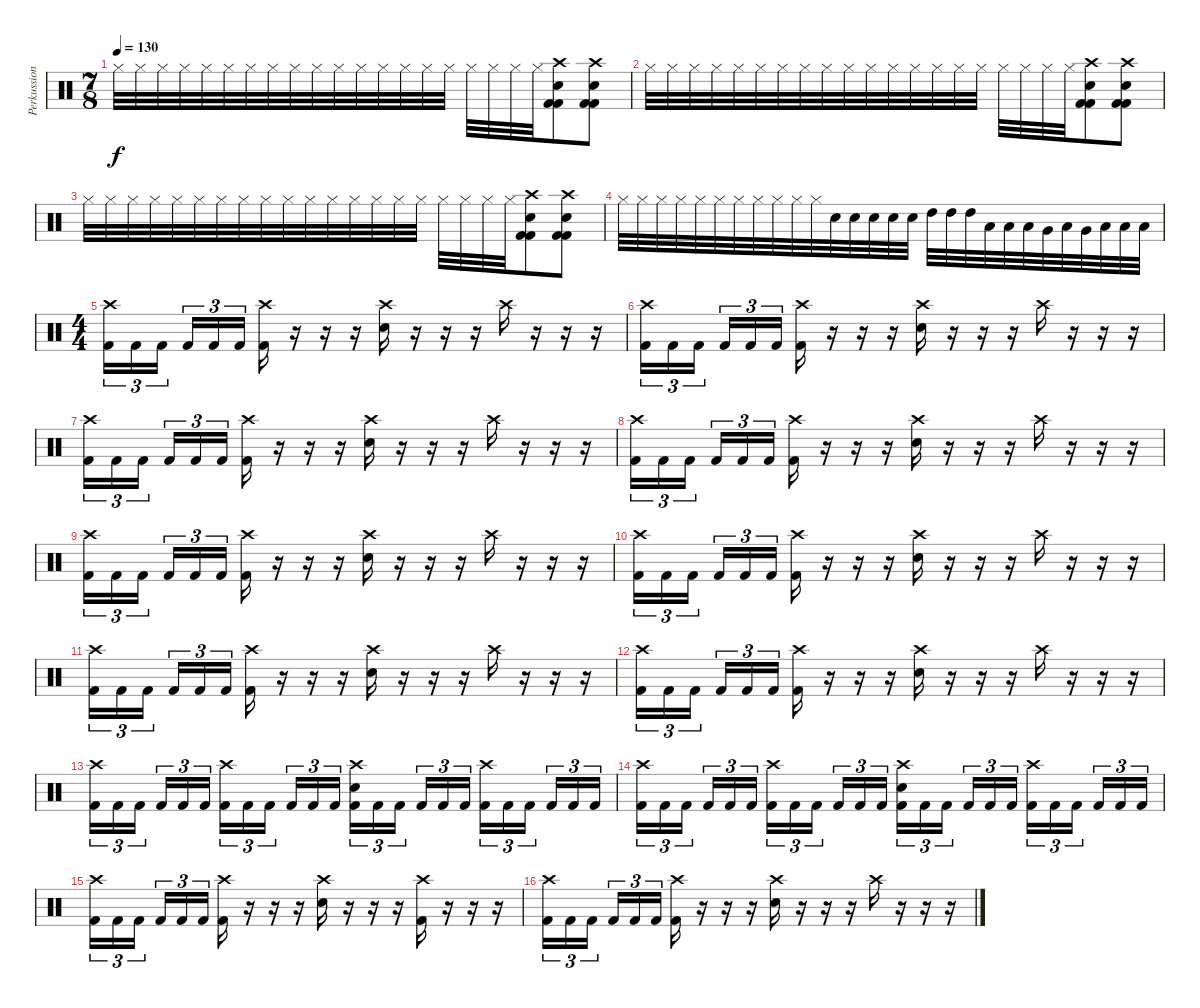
\track ("Perkussion" "Perkussion") {instrument percussion}
\staff {score}
\articulation defaults
\ts (7 8)
\tempo 130
\clef neutral
\ks c "Hi-Hat (closed)".32{dy f} "Hi-Hat (closed)".32 "Hi-Hat (closed)".32 "Hi-Hat (closed)".32 "Hi-Hat (closed)".32 "Hi-Hat (closed)".32 "Hi-Hat (closed)".32 "Hi-Hat (closed)".32 "Hi-Hat (closed)".32 "Hi-Hat (closed)".32 "Hi-Hat (closed)".32 "Hi-Hat (closed)".32 "Hi-Hat (closed)".32 "Hi-Hat (closed)".32 "Hi-Hat (closed)".32 "Hi-Hat (closed)".32 "Hi-Hat (closed)".32 "Hi-Hat (closed)".32 "Hi-Hat (closed)".32 "Hi-Hat (closed)".32
("Crash high (hit)" "Electric Snare (hit)" "Kick (hit) 2" "Kick (hit) 2").8 ("Crash high (hit)" "Electric Snare (hit)" "Kick (hit) 2" "Kick (hit) 2").8 |
"Hi-Hat (closed)".32 "Hi-Hat (closed)".32 "Hi-Hat (closed)".32 "Hi-Hat (closed)".32 "Hi-Hat (closed)".32 "Hi-Hat (closed)".32 "Hi-Hat (closed)".32 "Hi-Hat (closed)".32 "Hi-Hat (closed)".32 "Hi-Hat (closed)".32 "Hi-Hat (closed)".32 "Hi-Hat (closed)".32 "Hi-Hat (closed)".32 "Hi-Hat (closed)".32 "Hi-Hat (closed)".32 "Hi-Hat (closed)".32 "Hi-Hat (closed)".32 "Hi-Hat (closed)".32 "Hi-Hat (closed)".32 "Hi-Hat (closed)".32 ("Crash high (hit)" "Electric Snare (hit)" "Kick (hit) 2" "Kick (hit) 2").8 ("Crash high (hit)" "Electric Snare (hit)" "Kick (hit) 2" "Kick (hit) 2").8 |
"Hi-Hat (closed)".32 "Hi-Hat (closed)".32 "Hi-Hat (closed)".32 "Hi-Hat (closed)".32 "Hi-Hat (closed)".32 "Hi-Hat (closed)".32 "Hi-Hat (closed)".32 "Hi-Hat (closed)".32 "Hi-Hat (closed)".32 "Hi-Hat (closed)".32 "Hi-Hat (closed)".32 "Hi-Hat (closed)".32 "Hi-Hat (closed)".32 "Hi-Hat (closed)".32 "Hi-Hat (closed)".32 "Hi-Hat (closed)".32 "Hi-Hat (closed)".32 "Hi-Hat (closed)".32 "Hi-Hat (closed)".32 "Hi-Hat (closed)".32 ("Crash high (hit)" "Electric Snare (hit)" "Kick (hit) 2" "Kick (hit) 2").8 ("Crash high (hit)" "Electric Snare (hit)" "Kick (hit) 2" "Kick (hit) 2").8 |
"Hi-Hat (closed)".32 "Hi-Hat (closed)".32 "Hi-Hat (closed)".32 "Hi-Hat (closed)".32 "Hi-Hat (closed)".32 "Hi-Hat (closed)".32 "Hi-Hat (closed)".32 "Hi-Hat (closed)".32 "Hi-Hat (closed)".32 "Hi-Hat (closed)".32 "Hi-Hat (closed)".32 "Electric Snare (hit)".32 "Electric Snare (hit)".32 "Electric Snare (hit)".32 "Electric Snare (hit)".32 "Electric Snare (hit)".32 "High Tom (hit)".32 "High Tom (hit)".32 "High Tom (hit)".32 "Low Tom (hit)".32 "Low Tom (hit)".32 "Low Tom (hit)".32 "Very Low Tom (hit)".32 "Low Tom (hit)".32 "Very Low Tom (hit)".32 "Low Floor Tom (hit)".32 "Low Floor Tom (hit)".32 "Low Floor Tom (hit)".32 |
\ts (4 4)
("Crash high (hit)" "Kick (hit) 2").16{tu (3 2)} "Kick (hit) 2".16{tu (3 2)} "Kick (hit) 2".16{tu (3 2)} "Kick (hit) 2".16{tu (3 2)} "Kick (hit) 2".16{tu (3 2)} "Kick (hit) 2".16{tu (3 2)} ("Crash high (hit)" "Kick (hit) 2").16 r.16 r.16 r.16 ("Crash high (hit)" "Electric Snare (hit)").16 r.16 r.16 r.16 "Crash high (hit)".16 r.16 r.16 r.16 |
("Crash high (hit)" "Kick (hit) 2").16{tu (3 2)} "Kick (hit) 2".16{tu (3 2)} "Kick (hit) 2".16{tu (3 2)} "Kick (hit) 2".16{tu (3 2)} "Kick (hit) 2".16{tu (3 2)} "Kick (hit) 2".16{tu (3 2)} ("Crash high (hit)" "Kick (hit) 2").16 r.16 r.16 r.16 ("Crash high (hit)" "Electric Snare (hit)").16 r.16 r.16 r.16 "Crash high (hit)".16 r.16 r.16 r.16 |
("Crash high (hit)" "Kick (hit) 2").16{tu (3 2)} "Kick (hit) 2".16{tu (3 2)} "Kick (hit) 2".16{tu (3 2)} "Kick (hit) 2".16{tu (3 2)} "Kick (hit) 2".16{tu (3 2)} "Kick (hit) 2".16{tu (3 2)} ("Crash high (hit)" "Kick (hit) 2").16 r.16 r.16 r.16 ("Crash high (hit)" "Electric Snare (hit)").16 r.16 r.16 r.16 "Crash high (hit)".16 r.16 r.16 r.16 |
("Crash high (hit)" "Kick (hit) 2").16{tu (3 2)} "Kick (hit) 2".16{tu (3 2)} "Kick (hit) 2".16{tu (3 2)} "Kick (hit) 2".16{tu (3 2)} "Kick (hit) 2".16{tu (3 2)} "Kick (hit) 2".16{tu (3 2)} ("Crash high (hit)" "Kick (hit) 2").16 r.16 r.16 r.16 ("Crash high (hit)" "Electric Snare (hit)").16 r.16 r.16 r.16 "Crash high (hit)".16 r.16 r.16 r.16 |
("Crash high (hit)" "Kick (hit) 2").16{tu (3 2)} "Kick (hit) 2".16{tu (3 2)} "Kick (hit) 2".16{tu (3 2)} "Kick (hit) 2".16{tu (3 2)} "Kick (hit) 2".16{tu (3 2)} "Kick (hit) 2".16{tu (3 2)} ("Crash high (hit)" "Kick (hit) 2").16 r.16 r.16 r.16 ("Crash high (hit)" "Electric Snare (hit)").16 r.16 r.16 r.16 "Crash high (hit)".16 r.16 r.16 r.16 |
("Crash high (hit)" "Kick (hit) 2").16{tu (3 2)} "Kick (hit) 2".16{tu (3 2)} "Kick (hit) 2".16{tu (3 2)} "Kick (hit) 2".16{tu (3 2)} "Kick (hit) 2".16{tu (3 2)} "Kick (hit) 2".16{tu (3 2)} ("Crash high (hit)" "Kick (hit) 2").16 r.16 r.16 r.16 ("Crash high (hit)" "Electric Snare (hit)").16 r.16 r.16 r.16 "Crash high (hit)".16 r.16 r.16 r.16 |
("Crash high (hit)" "Kick (hit) 2").16{tu (3 2)} "Kick (hit) 2".16{tu (3 2)} "Kick (hit) 2".16{tu (3 2)} "Kick (hit) 2".16{tu (3 2)} "Kick (hit) 2".16{tu (3 2)} "Kick (hit) 2".16{tu (3 2)} ("Crash high (hit)" "Kick (hit) 2").16 r.16 r.16 r.16 ("Crash high (hit)" "Electric Snare (hit)").16 r.16 r.16 r.16 "Crash high (hit)".16 r.16 r.16 r.16 |
("Crash high (hit)" "Kick (hit) 2").16{tu (3 2)} "Kick (hit) 2".16{tu (3 2)} "Kick (hit) 2".16{tu (3 2)} "Kick (hit) 2".16{tu (3 2)} "Kick (hit) 2".16{tu (3 2)} "Kick (hit) 2".16{tu (3 2)} ("Crash high (hit)" "Kick (hit) 2").16 r.16 r.16 r.16 ("Crash high (hit)" "Electric Snare (hit)").16 r.16 r.16 r.16 "Crash high (hit)".16 r.16 r.16 r.16 |
("Crash high (hit)" "Kick (hit) 2").16{tu (3 2)} "Kick (hit) 2".16{tu (3 2)} "Kick (hit) 2".16{tu (3 2)} "Kick (hit) 2".16{tu (3 2)} "Kick (hit) 2".16{tu (3 2)} "Kick (hit) 2".16{tu (3 2)} ("Crash high (hit)" "Kick (hit) 2").16{tu (3 2)} "Kick (hit) 2".16{tu (3 2)} "Kick (hit) 2".16{tu (3 2)} "Kick (hit) 2".16{tu (3 2)} "Kick (hit) 2".16{tu (3 2)} "Kick (hit) 2".16{tu (3 2)} ("Crash high (hit)" "Electric Snare (hit)" "Kick (hit) 2").16{tu (3 2)} "Kick (hit) 2".16{tu (3 2)} "Kick (hit) 2".16{tu (3 2)} "Kick (hit) 2".16{tu (3 2)} "Kick (hit) 2".16{tu (3 2)} "Kick (hit) 2".16{tu (3 2)} ("Crash high (hit)" "Kick (hit) 2").16{tu (3 2)} "Kick (hit) 2".16{tu (3 2)} "Kick (hit) 2".16{tu (3 2)} "Kick (hit) 2".16{tu (3 2)} "Kick (hit) 2".16{tu (3 2)} "Kick (hit) 2".16{tu (3 2)} |
("Crash high (hit)" "Kick (hit) 2").16{tu (3 2)} "Kick (hit) 2".16{tu (3 2)} "Kick (hit) 2".16{tu (3 2)} "Kick (hit) 2".16{tu (3 2)} "Kick (hit) 2".16{tu (3 2)} "Kick (hit) 2".16{tu (3 2)} ("Crash high (hit)" "Kick (hit) 2").16{tu (3 2)} "Kick (hit) 2".16{tu (3 2)} "Kick (hit) 2".16{tu (3 2)} "Kick (hit) 2".16{tu (3 2)} "Kick (hit) 2".16{tu (3 2)} "Kick (hit) 2".16{tu (3 2)} ("Crash high (hit)" "Electric Snare (hit)" "Kick (hit) 2").16{tu (3 2)} "Kick (hit) 2".16{tu (3 2)} "Kick (hit) 2".16{tu (3 2)} "Kick (hit) 2".16{tu (3 2)} "Kick (hit) 2".16{tu (3 2)} "Kick (hit) 2".16{tu (3 2)} ("Crash high (hit)" "Kick (hit) 2").16{tu (3 2)} "Kick (hit) 2".16{tu (3 2)} "Kick (hit) 2".16{tu (3 2)} "Kick (hit) 2".16{tu (3 2)} "Kick (hit) 2".16{tu (3 2)} "Kick (hit) 2".16{tu (3 2)} |
("Crash high (hit)" "Kick (hit) 2").16{tu (3 2)} "Kick (hit) 2".16{tu (3 2)} "Kick (hit) 2".16{tu (3 2)} "Kick (hit) 2".16{tu (3 2)} "Kick (hit) 2".16{tu (3 2)} "Kick (hit) 2".16{tu (3 2)} ("Crash high (hit)" "Kick (hit) 2").16 r.16 r.16 r.16 ("Crash high (hit)" "Electric Snare (hit)").16 r.16 r.16 r.16 ("Crash high (hit)" "Kick (hit) 2").16 r.16 r.16 r.16 |
("Crash high (hit)" "Kick (hit) 2").16{tu (3 2)} "Kick (hit) 2".16{tu (3 2)} "Kick (hit) 2".16{tu (3 2)} "Kick (hit) 2".16{tu (3 2)} "Kick (hit) 2".16{tu (3 2)} "Kick (hit) 2".16{tu (3 2)} ("Crash high (hit)" "Kick (hit) 2").16 r.16 r.16 r.16 ("Crash high (hit)" "Electric Snare (hit)").16 r.16 r.16 r.16 "Crash high (hit)".16 r.16 r.16 r.16
